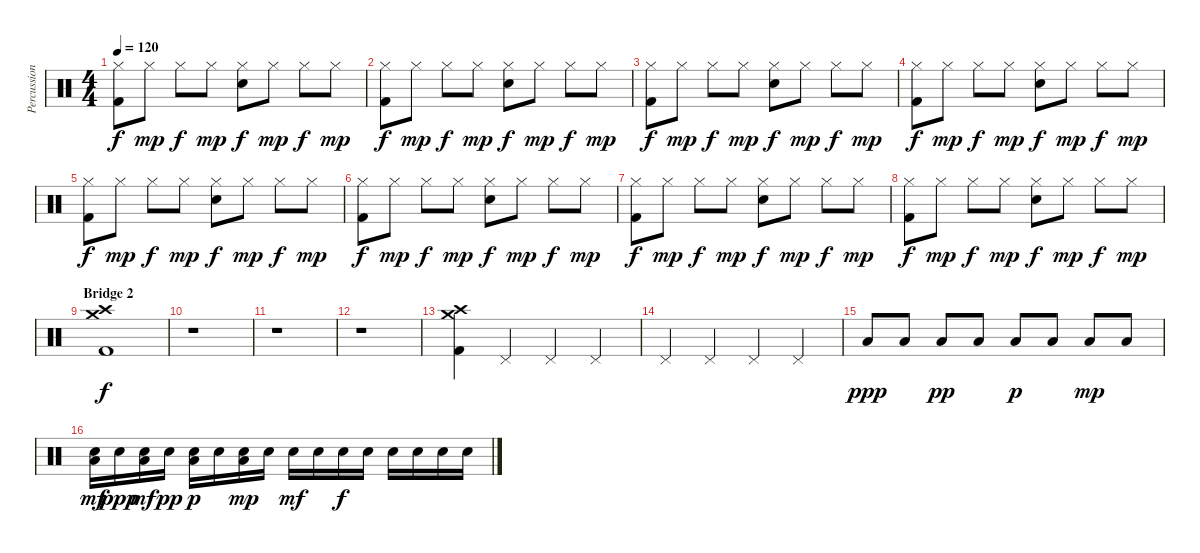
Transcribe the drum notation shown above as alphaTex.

\track ("Percussion" "Percussion") {instrument percussion}
\staff {score}
\articulation defaults
\ts (4 4)
\tempo 120
\clef neutral
\ks c
("Kick (hit) 2" "Hi-Hat (closed)").8{dy f} "Hi-Hat (closed)".8{dy mp} "Hi-Hat (closed)".8{dy f} "Hi-Hat (closed)".8{dy mp} ("Snare (hit) 2" "Hi-Hat (closed)").8{dy f} "Hi-Hat (closed)".8{dy mp} "Hi-Hat (closed)".8{dy f} "Hi-Hat (closed)".8{dy mp} |
("Kick (hit) 2" "Hi-Hat (closed)").8{dy f} "Hi-Hat (closed)".8{dy mp} "Hi-Hat (closed)".8{dy f} "Hi-Hat (closed)".8{dy mp} ("Snare (hit) 2" "Hi-Hat (closed)").8{dy f} "Hi-Hat (closed)".8{dy mp} "Hi-Hat (closed)".8{dy f} "Hi-Hat (closed)".8{dy mp} |
("Kick (hit) 2" "Hi-Hat (closed)").8{dy f} "Hi-Hat (closed)".8{dy mp} "Hi-Hat (closed)".8{dy f} "Hi-Hat (closed)".8{dy mp} ("Snare (hit) 2" "Hi-Hat (closed)").8{dy f} "Hi-Hat (closed)".8{dy mp} "Hi-Hat (closed)".8{dy f} "Hi-Hat (closed)".8{dy mp} |
("Kick (hit) 2" "Hi-Hat (closed)").8{dy f} "Hi-Hat (closed)".8{dy mp} "Hi-Hat (closed)".8{dy f} "Hi-Hat (closed)".8{dy mp} ("Snare (hit) 2" "Hi-Hat (closed)").8{dy f} "Hi-Hat (closed)".8{dy mp} "Hi-Hat (closed)".8{dy f} "Hi-Hat (closed)".8{dy mp} |
("Kick (hit) 2" "Hi-Hat (closed)").8{dy f} "Hi-Hat (closed)".8{dy mp} "Hi-Hat (closed)".8{dy f} "Hi-Hat (closed)".8{dy mp} ("Snare (hit) 2" "Hi-Hat (closed)").8{dy f} "Hi-Hat (closed)".8{dy mp} "Hi-Hat (closed)".8{dy f} "Hi-Hat (closed)".8{dy mp} |
("Kick (hit) 2" "Hi-Hat (closed)").8{dy f} "Hi-Hat (closed)".8{dy mp} "Hi-Hat (closed)".8{dy f} "Hi-Hat (closed)".8{dy mp} ("Snare (hit) 2" "Hi-Hat (closed)").8{dy f} "Hi-Hat (closed)".8{dy mp} "Hi-Hat (closed)".8{dy f} "Hi-Hat (closed)".8{dy mp} |
("Kick (hit) 2" "Hi-Hat (closed)").8{dy f} "Hi-Hat (closed)".8{dy mp} "Hi-Hat (closed)".8{dy f} "Hi-Hat (closed)".8{dy mp} ("Snare (hit) 2" "Hi-Hat (closed)").8{dy f} "Hi-Hat (closed)".8{dy mp} "Hi-Hat (closed)".8{dy f} "Hi-Hat (closed)".8{dy mp} |
("Kick (hit) 2" "Hi-Hat (closed)").8{dy f} "Hi-Hat (closed)".8{dy mp} "Hi-Hat (closed)".8{dy f} "Hi-Hat (closed)".8{dy mp} ("Snare (hit) 2" "Hi-Hat (closed)").8{dy f} "Hi-Hat (closed)".8{dy mp} "Hi-Hat (closed)".8{dy f} "Hi-Hat (closed)".8{dy mp} |
\section ("" "Bridge 2")
("Kick (hit) 2" "Crash medium (hit)" "Crash high (hit)").1{dy f} |
r.1 |
r.1 |
r.1 |
("Kick (hit) 2" "Crash medium (hit)" "Crash high (hit)").4 "Pedal Hi-Hat (hit)".4 "Pedal Hi-Hat (hit)".4 "Pedal Hi-Hat (hit)".4 |
"Pedal Hi-Hat (hit)".4 "Pedal Hi-Hat (hit)".4 "Pedal Hi-Hat (hit)".4 "Pedal Hi-Hat (hit)".4 |
"Low Tom (hit)".8{dy ppp} "Low Tom (hit)".8 "Low Tom (hit)".8{dy pp} "Low Tom (hit)".8 "Low Tom (hit)".8{dy p} "Low Tom (hit)".8 "Low Tom (hit)".8{dy mp} "Low Tom (hit)".8 |
("Snare (hit) 2" "Low Tom (hit)").16{dy mf} "Snare (hit) 2".16{dy ppp} ("Snare (hit) 2" "Low Tom (hit)").16{dy mf} "Snare (hit) 2".16{dy pp} ("Snare (hit) 2" "Low Tom (hit)").16{dy p} "Snare (hit) 2".16 ("Snare (hit) 2" "Low Tom (hit)").16{dy mp} "Snare (hit) 2".16 "Snare (hit) 2".16{dy mf} "Snare (hit) 2".16 "Snare (hit) 2".16{dy f} "Snare (hit) 2".16 "Snare (hit) 2".16 "Snare (hit) 2".16 "Snare (hit) 2".16 "Snare (hit) 2".16
